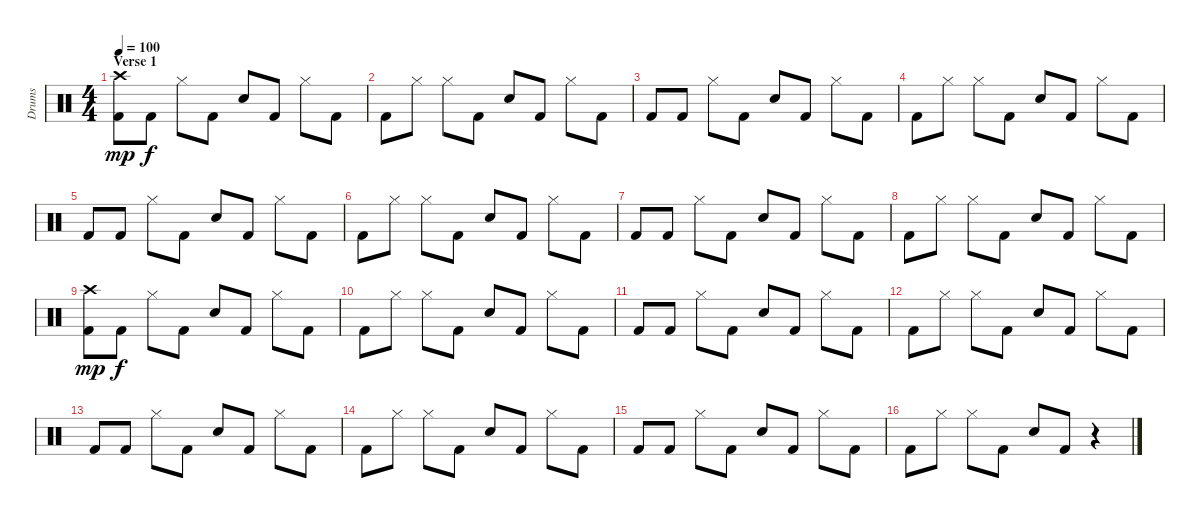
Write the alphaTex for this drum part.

\track ("Drums" "Drums") {instrument percussion}
\staff {score}
\articulation defaults
\ts (4 4)
\section ("" "Verse 1")
\tempo 100
\clef neutral
\ks c
("Crash high (hit)" "Kick (hit) 2").8{dy mp} "Kick (hit) 2".8{dy f} "Hi-Hat (closed)".8 "Kick (hit) 2".8 "Snare (hit) 2".8 "Kick (hit) 2".8 "Hi-Hat (closed)".8 "Kick (hit) 2".8 |
"Kick (hit) 2".8 "Hi-Hat (closed)".8 "Hi-Hat (closed)".8 "Kick (hit) 2".8 "Snare (hit) 2".8 "Kick (hit) 2".8 "Hi-Hat (closed)".8 "Kick (hit) 2".8 |
"Kick (hit) 2".8 "Kick (hit) 2".8 "Hi-Hat (closed)".8 "Kick (hit) 2".8 "Snare (hit) 2".8 "Kick (hit) 2".8 "Hi-Hat (closed)".8 "Kick (hit) 2".8 |
"Kick (hit) 2".8 "Hi-Hat (closed)".8 "Hi-Hat (closed)".8 "Kick (hit) 2".8 "Snare (hit) 2".8 "Kick (hit) 2".8 "Hi-Hat (closed)".8 "Kick (hit) 2".8 |
"Kick (hit) 2".8 "Kick (hit) 2".8 "Hi-Hat (closed)".8 "Kick (hit) 2".8 "Snare (hit) 2".8 "Kick (hit) 2".8 "Hi-Hat (closed)".8 "Kick (hit) 2".8 |
"Kick (hit) 2".8 "Hi-Hat (closed)".8 "Hi-Hat (closed)".8 "Kick (hit) 2".8 "Snare (hit) 2".8 "Kick (hit) 2".8 "Hi-Hat (closed)".8 "Kick (hit) 2".8 |
"Kick (hit) 2".8 "Kick (hit) 2".8 "Hi-Hat (closed)".8 "Kick (hit) 2".8 "Snare (hit) 2".8 "Kick (hit) 2".8 "Hi-Hat (closed)".8 "Kick (hit) 2".8 |
"Kick (hit) 2".8 "Hi-Hat (closed)".8 "Hi-Hat (closed)".8 "Kick (hit) 2".8 "Snare (hit) 2".8 "Kick (hit) 2".8 "Hi-Hat (closed)".8 "Kick (hit) 2".8 |
("Crash high (hit)" "Kick (hit) 2").8{dy mp} "Kick (hit) 2".8{dy f} "Hi-Hat (closed)".8 "Kick (hit) 2".8 "Snare (hit) 2".8 "Kick (hit) 2".8 "Hi-Hat (closed)".8 "Kick (hit) 2".8 |
"Kick (hit) 2".8 "Hi-Hat (closed)".8 "Hi-Hat (closed)".8 "Kick (hit) 2".8 "Snare (hit) 2".8 "Kick (hit) 2".8 "Hi-Hat (closed)".8 "Kick (hit) 2".8 |
"Kick (hit) 2".8 "Kick (hit) 2".8 "Hi-Hat (closed)".8 "Kick (hit) 2".8 "Snare (hit) 2".8 "Kick (hit) 2".8 "Hi-Hat (closed)".8 "Kick (hit) 2".8 |
"Kick (hit) 2".8 "Hi-Hat (closed)".8 "Hi-Hat (closed)".8 "Kick (hit) 2".8 "Snare (hit) 2".8 "Kick (hit) 2".8 "Hi-Hat (closed)".8 "Kick (hit) 2".8 |
"Kick (hit) 2".8 "Kick (hit) 2".8 "Hi-Hat (closed)".8 "Kick (hit) 2".8 "Snare (hit) 2".8 "Kick (hit) 2".8 "Hi-Hat (closed)".8 "Kick (hit) 2".8 |
"Kick (hit) 2".8 "Hi-Hat (closed)".8 "Hi-Hat (closed)".8 "Kick (hit) 2".8 "Snare (hit) 2".8 "Kick (hit) 2".8 "Hi-Hat (closed)".8 "Kick (hit) 2".8 |
"Kick (hit) 2".8 "Kick (hit) 2".8 "Hi-Hat (closed)".8 "Kick (hit) 2".8 "Snare (hit) 2".8 "Kick (hit) 2".8 "Hi-Hat (closed)".8 "Kick (hit) 2".8 |
"Kick (hit) 2".8 "Hi-Hat (closed)".8 "Hi-Hat (closed)".8 "Kick (hit) 2".8 "Snare (hit) 2".8 "Kick (hit) 2".8 r.4
